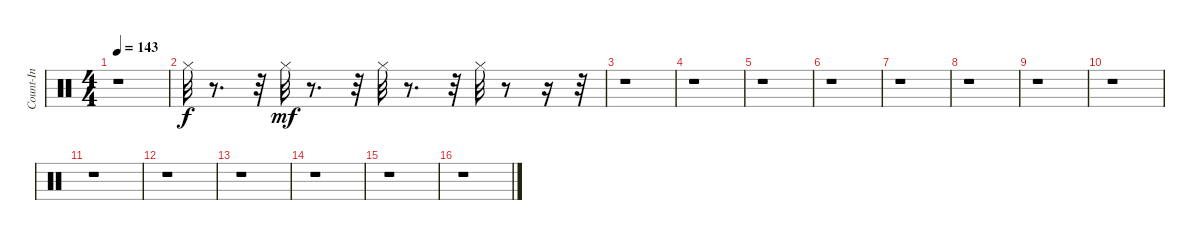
\track ("Count-In " "Count-In ") {instrument percussion}
\staff {score}
\articulation defaults
\ts (4 4)
\tempo 143
\clef neutral
\ks c
r.1{dy f} |
"Hi-Hat (closed)".32 r.8{d} r.32 "Hi-Hat (closed)".32{dy mf} r.8{d} r.32 "Hi-Hat (closed)".32 r.8{d} r.32 "Hi-Hat (closed)".32 r.8 r.16 r.32 |
r.1 |
r.1 |
r.1 |
r.1 |
r.1 |
r.1 |
r.1 |
r.1 |
r.1 |
r.1 |
r.1 |
r.1 |
r.1 |
r.1
